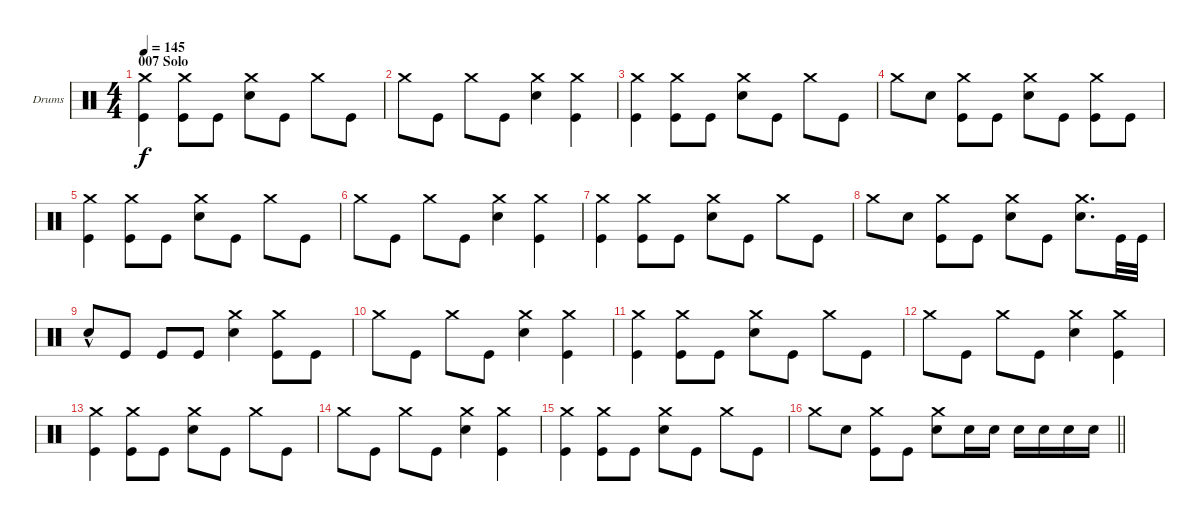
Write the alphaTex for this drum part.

\bracketExtendMode groupsimilarinstruments
\firstSystemTrackNameOrientation horizontal
\otherSystemsTrackNameOrientation horizontal
\track ("drums (Anton Zulganov)" "Drums") {instrument percussion}
\staff {score}
\articulation defaults
\ts (4 4)
\section ("" "007 Solo")
\tempo 145
\clef neutral
\ks aminor
("Crash medium (hit)" "Kick (hit)").4{dy f} ("Crash medium (hit)" "Kick (hit)").8 "Kick (hit)".8 ("Crash medium (hit)" "Snare (hit) 2").8 "Kick (hit)".8 "Crash medium (hit)".8 "Kick (hit)".8 |
"Crash medium (hit)".8 "Kick (hit)".8 "Crash medium (hit)".8 "Kick (hit)".8 ("Crash medium (hit)" "Snare (hit) 2").4 ("Crash medium (hit)" "Kick (hit)").4 |
("Crash medium (hit)" "Kick (hit)").4 ("Crash medium (hit)" "Kick (hit)").8 "Kick (hit)".8 ("Crash medium (hit)" "Snare (hit) 2").8 "Kick (hit)".8 "Crash medium (hit)".8 "Kick (hit)".8 |
"Crash medium (hit)".8 "Snare (hit) 2".8 ("Crash medium (hit)" "Kick (hit)").8 "Kick (hit)".8 ("Crash medium (hit)" "Snare (hit) 2").8 "Kick (hit)".8 ("Crash medium (hit)" "Kick (hit)").8 "Kick (hit)".8 |
("Crash medium (hit)" "Kick (hit)").4 ("Crash medium (hit)" "Kick (hit)").8 "Kick (hit)".8 ("Crash medium (hit)" "Snare (hit) 2").8 "Kick (hit)".8 "Crash medium (hit)".8 "Kick (hit)".8 |
"Crash medium (hit)".8 "Kick (hit)".8 "Crash medium (hit)".8 "Kick (hit)".8 ("Crash medium (hit)" "Snare (hit) 2").4 ("Crash medium (hit)" "Kick (hit)").4 |
("Crash medium (hit)" "Kick (hit)").4 ("Crash medium (hit)" "Kick (hit)").8 "Kick (hit)".8 ("Crash medium (hit)" "Snare (hit) 2").8 "Kick (hit)".8 "Crash medium (hit)".8 "Kick (hit)".8 |
"Crash medium (hit)".8 "Snare (hit) 2".8 ("Crash medium (hit)" "Kick (hit)").8 "Kick (hit)".8 ("Crash medium (hit)" "Snare (hit) 2").8 "Kick (hit)".8 ("Crash medium (hit)" "Snare (hit) 2").8{d} "Kick (hit)".32 "Kick (hit)".32 |
\section ("" "")
"Snare (hit) 2"{hac}.8 "Kick (hit)".8 "Kick (hit)".8 "Kick (hit)".8 ("Crash medium (hit)" "Snare (hit) 2").4 ("Crash medium (hit)" "Kick (hit)").8 "Kick (hit)".8 |
"Crash medium (hit)".8 "Kick (hit)".8 "Crash medium (hit)".8 "Kick (hit)".8 ("Crash medium (hit)" "Snare (hit) 2").4 ("Crash medium (hit)" "Kick (hit)").4 |
("Crash medium (hit)" "Kick (hit)").4 ("Crash medium (hit)" "Kick (hit)").8 "Kick (hit)".8 ("Crash medium (hit)" "Snare (hit) 2").8 "Kick (hit)".8 "Crash medium (hit)".8 "Kick (hit)".8 |
"Crash medium (hit)".8 "Kick (hit)".8 "Crash medium (hit)".8 "Kick (hit)".8 ("Crash medium (hit)" "Snare (hit) 2").4 ("Crash medium (hit)" "Kick (hit)").4 |
("Crash medium (hit)" "Kick (hit)").4 ("Crash medium (hit)" "Kick (hit)").8 "Kick (hit)".8 ("Crash medium (hit)" "Snare (hit) 2").8 "Kick (hit)".8 "Crash medium (hit)".8 "Kick (hit)".8 |
"Crash medium (hit)".8 "Kick (hit)".8 "Crash medium (hit)".8 "Kick (hit)".8 ("Crash medium (hit)" "Snare (hit) 2").4 ("Crash medium (hit)" "Kick (hit)").4 |
("Crash medium (hit)" "Kick (hit)").4 ("Crash medium (hit)" "Kick (hit)").8 "Kick (hit)".8 ("Crash medium (hit)" "Snare (hit) 2").8 "Kick (hit)".8 "Crash medium (hit)".8 "Kick (hit)".8 |
\barLineRight lightlight "Crash medium (hit)".8 "Snare (hit) 2".8
("Crash medium (hit)" "Kick (hit)").8 "Kick (hit)".8 ("Crash medium (hit)" "Snare (hit) 2").8 "Snare (hit) 2".16 "Snare (hit) 2".16 "Snare (hit) 2".16 "Snare (hit) 2".16 "Snare (hit) 2".16 "Snare (hit) 2".16
